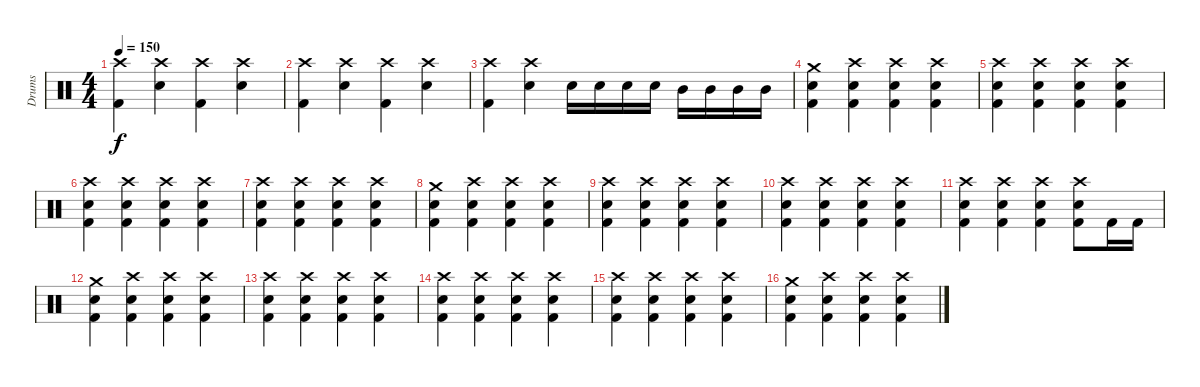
\track ("Drums" "Drums") {instrument percussion}
\staff {score}
\articulation defaults
\ts (4 4)
\tempo 150
\clef neutral
\ks c
("Crash high (hit)" "Kick (hit) 2").4{dy f} ("Crash high (hit)" "Electric Snare (hit)").4 ("Crash high (hit)" "Kick (hit) 2").4 ("Crash high (hit)" "Electric Snare (hit)").4 |
("Crash high (hit)" "Kick (hit) 2").4 ("Crash high (hit)" "Electric Snare (hit)").4 ("Crash high (hit)" "Kick (hit) 2").4 ("Crash high (hit)" "Electric Snare (hit)").4 |
("Crash high (hit)" "Kick (hit) 2").4 ("Crash high (hit)" "Electric Snare (hit)").4 "Electric Snare (hit)".16 "Electric Snare (hit)".16 "Electric Snare (hit)".16 "Electric Snare (hit)".16 "Mid Tom (hit)".16 "Mid Tom (hit)".16 "Mid Tom (hit)".16 "Mid Tom (hit)".16 |
("Crash medium (hit)" "Electric Snare (hit)" "Kick (hit) 2").4 ("Crash high (hit)" "Electric Snare (hit)" "Kick (hit) 2").4 ("Crash high (hit)" "Electric Snare (hit)" "Kick (hit) 2").4 ("Crash high (hit)" "Electric Snare (hit)" "Kick (hit) 2").4 |
("Crash high (hit)" "Electric Snare (hit)" "Kick (hit) 2").4 ("Crash high (hit)" "Electric Snare (hit)" "Kick (hit) 2").4 ("Crash high (hit)" "Electric Snare (hit)" "Kick (hit) 2").4 ("Crash high (hit)" "Electric Snare (hit)" "Kick (hit) 2").4 |
("Crash high (hit)" "Electric Snare (hit)" "Kick (hit) 2").4 ("Crash high (hit)" "Electric Snare (hit)" "Kick (hit) 2").4 ("Crash high (hit)" "Electric Snare (hit)" "Kick (hit) 2").4 ("Crash high (hit)" "Electric Snare (hit)" "Kick (hit) 2").4 |
("Crash high (hit)" "Electric Snare (hit)" "Kick (hit) 2").4 ("Crash high (hit)" "Electric Snare (hit)" "Kick (hit) 2").4 ("Crash high (hit)" "Electric Snare (hit)" "Kick (hit) 2").4 ("Crash high (hit)" "Electric Snare (hit)" "Kick (hit) 2").4 |
("Crash medium (hit)" "Electric Snare (hit)" "Kick (hit) 2").4 ("Crash high (hit)" "Electric Snare (hit)" "Kick (hit) 2").4 ("Crash high (hit)" "Electric Snare (hit)" "Kick (hit) 2").4 ("Crash high (hit)" "Electric Snare (hit)" "Kick (hit) 2").4 |
("Crash high (hit)" "Electric Snare (hit)" "Kick (hit) 2").4 ("Crash high (hit)" "Electric Snare (hit)" "Kick (hit) 2").4 ("Crash high (hit)" "Electric Snare (hit)" "Kick (hit) 2").4 ("Crash high (hit)" "Electric Snare (hit)" "Kick (hit) 2").4 |
("Crash high (hit)" "Electric Snare (hit)" "Kick (hit) 2").4 ("Crash high (hit)" "Electric Snare (hit)" "Kick (hit) 2").4 ("Crash high (hit)" "Electric Snare (hit)" "Kick (hit) 2").4 ("Crash high (hit)" "Electric Snare (hit)" "Kick (hit) 2").4 |
("Crash high (hit)" "Electric Snare (hit)" "Kick (hit) 2").4 ("Crash high (hit)" "Electric Snare (hit)" "Kick (hit) 2").4 ("Crash high (hit)" "Electric Snare (hit)" "Kick (hit) 2").4 ("Crash high (hit)" "Electric Snare (hit)" "Kick (hit) 2").8 "Kick (hit) 2".16 "Kick (hit) 2".16 |
("Crash medium (hit)" "Electric Snare (hit)" "Kick (hit) 2").4 ("Crash high (hit)" "Electric Snare (hit)" "Kick (hit) 2").4 ("Crash high (hit)" "Electric Snare (hit)" "Kick (hit) 2").4 ("Crash high (hit)" "Electric Snare (hit)" "Kick (hit) 2").4 |
("Crash high (hit)" "Electric Snare (hit)" "Kick (hit) 2").4 ("Crash high (hit)" "Electric Snare (hit)" "Kick (hit) 2").4 ("Crash high (hit)" "Electric Snare (hit)" "Kick (hit) 2").4 ("Crash high (hit)" "Electric Snare (hit)" "Kick (hit) 2").4 |
("Crash high (hit)" "Electric Snare (hit)" "Kick (hit) 2").4 ("Crash high (hit)" "Electric Snare (hit)" "Kick (hit) 2").4 ("Crash high (hit)" "Electric Snare (hit)" "Kick (hit) 2").4 ("Crash high (hit)" "Electric Snare (hit)" "Kick (hit) 2").4 |
("Crash high (hit)" "Electric Snare (hit)" "Kick (hit) 2").4 ("Crash high (hit)" "Electric Snare (hit)" "Kick (hit) 2").4 ("Crash high (hit)" "Electric Snare (hit)" "Kick (hit) 2").4 ("Crash high (hit)" "Electric Snare (hit)" "Kick (hit) 2").4 |
("Crash medium (hit)" "Electric Snare (hit)" "Kick (hit) 2").4 ("Crash high (hit)" "Electric Snare (hit)" "Kick (hit) 2").4 ("Crash high (hit)" "Electric Snare (hit)" "Kick (hit) 2").4 ("Crash high (hit)" "Electric Snare (hit)" "Kick (hit) 2").4
